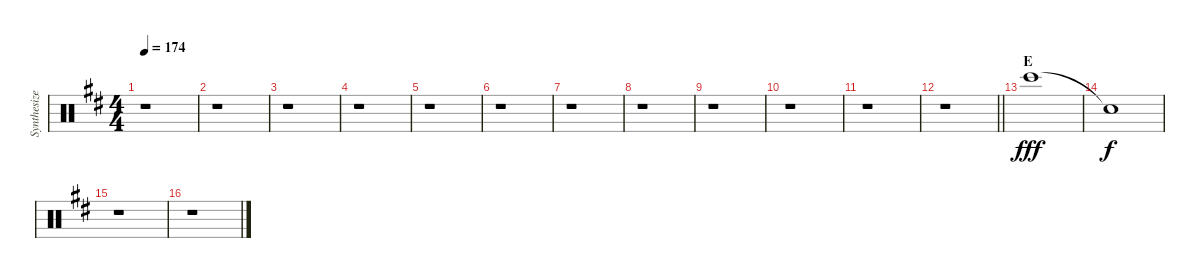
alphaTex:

\track ("Synthesized Slap" "Synthesize") {instrument percussion}
\staff {score}
\articulation defaults
\ts (4 4)
\tempo 174
\clef neutral
\ks bminor
r.1{dy f} |
r.1 |
r.1 |
r.1 |
r.1 |
r.1 |
r.1 |
r.1 |
r.1 |
r.1 |
r.1 |
\barLineRight lightlight
r.1 |
\section ("" "E")
"Bongo High (hit)".1{dy fff} |
"Snare (hit)"{t}.1{dy f} |
r.1 |
r.1
